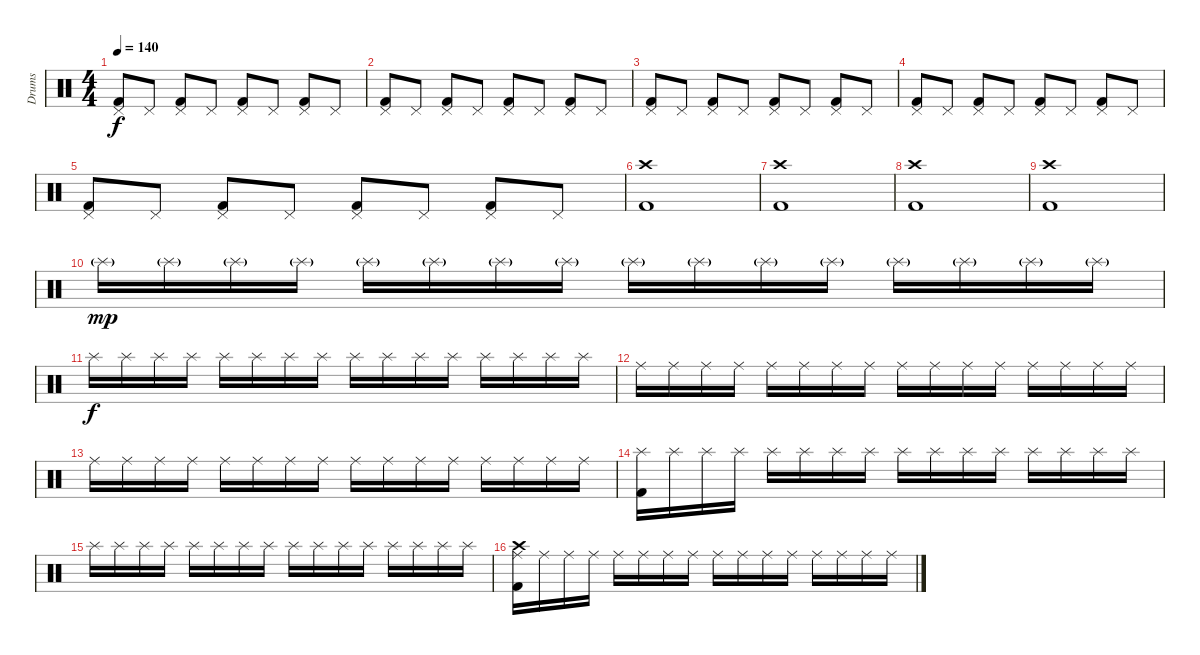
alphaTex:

\track ("Drums" "Drums") {instrument percussion}
\staff {score}
\articulation defaults
\ts (4 4)
\tempo 140
\clef neutral
\ks c
("Pedal Hi-Hat (hit)" "Kick (hit) 2").8{dy f} "Pedal Hi-Hat (hit)".8 ("Pedal Hi-Hat (hit)" "Kick (hit) 2").8 "Pedal Hi-Hat (hit)".8 ("Pedal Hi-Hat (hit)" "Kick (hit) 2").8 "Pedal Hi-Hat (hit)".8 ("Pedal Hi-Hat (hit)" "Kick (hit) 2").8 "Pedal Hi-Hat (hit)".8 |
("Pedal Hi-Hat (hit)" "Kick (hit) 2").8 "Pedal Hi-Hat (hit)".8 ("Pedal Hi-Hat (hit)" "Kick (hit) 2").8 "Pedal Hi-Hat (hit)".8 ("Pedal Hi-Hat (hit)" "Kick (hit) 2").8 "Pedal Hi-Hat (hit)".8 ("Pedal Hi-Hat (hit)" "Kick (hit) 2").8 "Pedal Hi-Hat (hit)".8 |
("Pedal Hi-Hat (hit)" "Kick (hit) 2").8 "Pedal Hi-Hat (hit)".8 ("Pedal Hi-Hat (hit)" "Kick (hit) 2").8 "Pedal Hi-Hat (hit)".8 ("Pedal Hi-Hat (hit)" "Kick (hit) 2").8 "Pedal Hi-Hat (hit)".8 ("Pedal Hi-Hat (hit)" "Kick (hit) 2").8 "Pedal Hi-Hat (hit)".8 |
("Pedal Hi-Hat (hit)" "Kick (hit) 2").8 "Pedal Hi-Hat (hit)".8 ("Pedal Hi-Hat (hit)" "Kick (hit) 2").8 "Pedal Hi-Hat (hit)".8 ("Pedal Hi-Hat (hit)" "Kick (hit) 2").8 "Pedal Hi-Hat (hit)".8 ("Pedal Hi-Hat (hit)" "Kick (hit) 2").8 "Pedal Hi-Hat (hit)".8 |
("Pedal Hi-Hat (hit)" "Kick (hit) 2").8 "Pedal Hi-Hat (hit)".8 ("Pedal Hi-Hat (hit)" "Kick (hit) 2").8 "Pedal Hi-Hat (hit)".8 ("Pedal Hi-Hat (hit)" "Kick (hit) 2").8 "Pedal Hi-Hat (hit)".8 ("Pedal Hi-Hat (hit)" "Kick (hit) 2").8 "Pedal Hi-Hat (hit)".8 |
("Crash high (hit)" "Kick (hit) 2").1 |
("Crash high (hit)" "Kick (hit) 2").1 |
("Crash high (hit)" "Kick (hit) 2").1 |
("Crash high (hit)" "Kick (hit) 2").1 |
"Splash (hit)"{g}.16{dy mp} "Splash (hit)"{g}.16 "Splash (hit)"{g}.16 "Splash (hit)"{g}.16 "Splash (hit)"{g}.16 "Splash (hit)"{g}.16 "Splash (hit)"{g}.16 "Splash (hit)"{g}.16 "Splash (hit)"{g}.16 "Splash (hit)"{g}.16 "Splash (hit)"{g}.16 "Splash (hit)"{g}.16 "Splash (hit)"{g}.16 "Splash (hit)"{g}.16 "Splash (hit)"{g}.16 "Splash (hit)"{g}.16 |
"Splash (hit)".16{dy f} "Splash (hit)".16 "Splash (hit)".16 "Splash (hit)".16 "Splash (hit)".16 "Splash (hit)".16 "Splash (hit)".16 "Splash (hit)".16 "Splash (hit)".16 "Splash (hit)".16 "Splash (hit)".16 "Splash (hit)".16 "Splash (hit)".16 "Splash (hit)".16 "Splash (hit)".16 "Splash (hit)".16 |
"Ride (middle)".16 "Ride (middle)".16 "Ride (middle)".16 "Ride (middle)".16 "Ride (middle)".16 "Ride (middle)".16 "Ride (middle)".16 "Ride (middle)".16 "Ride (middle)".16 "Ride (middle)".16 "Ride (middle)".16 "Ride (middle)".16 "Ride (middle)".16 "Ride (middle)".16 "Ride (middle)".16 "Ride (middle)".16 |
"Ride (middle)".16 "Ride (middle)".16 "Ride (middle)".16 "Ride (middle)".16 "Ride (middle)".16 "Ride (middle)".16 "Ride (middle)".16 "Ride (middle)".16 "Ride (middle)".16 "Ride (middle)".16 "Ride (middle)".16 "Ride (middle)".16 "Ride (middle)".16 "Ride (middle)".16 "Ride (middle)".16 "Ride (middle)".16 |
("Splash (hit)" "Kick (hit) 2").16 "Splash (hit)".16 "Splash (hit)".16 "Splash (hit)".16 "Splash (hit)".16 "Splash (hit)".16 "Splash (hit)".16 "Splash (hit)".16 "Splash (hit)".16 "Splash (hit)".16 "Splash (hit)".16 "Splash (hit)".16 "Splash (hit)".16 "Splash (hit)".16 "Splash (hit)".16 "Splash (hit)".16 |
"Splash (hit)".16 "Splash (hit)".16 "Splash (hit)".16 "Splash (hit)".16 "Splash (hit)".16 "Splash (hit)".16 "Splash (hit)".16 "Splash (hit)".16 "Splash (hit)".16 "Splash (hit)".16 "Splash (hit)".16 "Splash (hit)".16 "Splash (hit)".16 "Splash (hit)".16 "Splash (hit)".16 "Splash (hit)".16 |
("Crash high (hit)" "Ride (middle)" "Kick (hit) 2").16 "Ride (middle)".16 "Ride (middle)".16 "Ride (middle)".16 "Ride (middle)".16 "Ride (middle)".16 "Ride (middle)".16 "Ride (middle)".16 "Ride (middle)".16 "Ride (middle)".16 "Ride (middle)".16 "Ride (middle)".16 "Ride (middle)".16 "Ride (middle)".16 "Ride (middle)".16 "Ride (middle)".16
